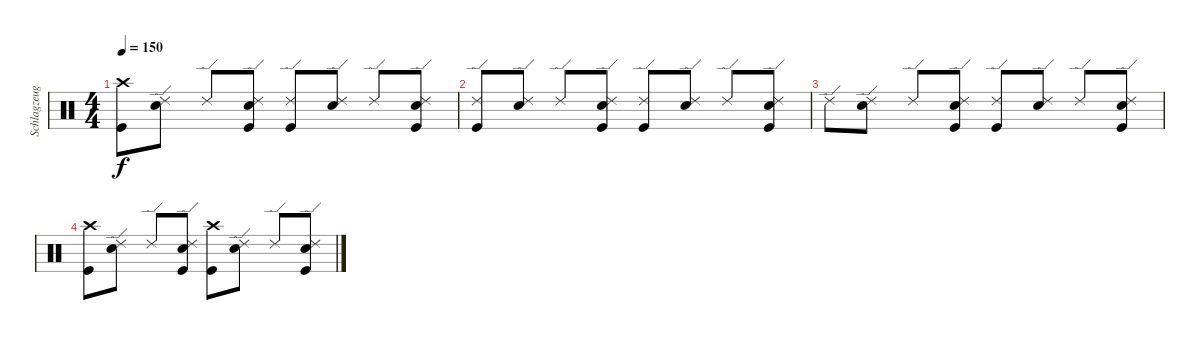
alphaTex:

\track ("Schlagzeug" "Schlagzeug") {instrument percussion}
\staff {score}
\articulation defaults
\ts (4 4)
\tempo 150
\clef neutral
\ks c
("Crash high (hit)" "Kick (hit)").8{dy f} ("Ride (edge) 2" "Snare (hit) 2").8 "Ride (edge) 2".8 ("Ride (edge) 2" "Snare (hit) 2" "Kick (hit)").8 ("Ride (edge) 2" "Kick (hit)").8 ("Ride (edge) 2" "Snare (hit) 2").8 "Ride (edge) 2".8 ("Ride (edge) 2" "Snare (hit) 2" "Kick (hit)").8 |
("Ride (edge) 2" "Kick (hit)").8 ("Ride (edge) 2" "Snare (hit) 2").8 "Ride (edge) 2".8 ("Ride (edge) 2" "Snare (hit) 2" "Kick (hit)").8 ("Ride (edge) 2" "Kick (hit)").8 ("Ride (edge) 2" "Snare (hit) 2").8 "Ride (edge) 2".8 ("Ride (edge) 2" "Snare (hit) 2" "Kick (hit)").8 |
"Ride (edge) 2".8 ("Ride (edge) 2" "Snare (hit) 2").8 "Ride (edge) 2".8 ("Ride (edge) 2" "Snare (hit) 2" "Kick (hit)").8 ("Ride (edge) 2" "Kick (hit)").8 ("Ride (edge) 2" "Snare (hit) 2").8 "Ride (edge) 2".8 ("Ride (edge) 2" "Snare (hit) 2" "Kick (hit)").8 |
("Crash high (hit)" "Kick (hit)").8 ("Ride (edge) 2" "Snare (hit) 2").8 "Ride (edge) 2".8 ("Ride (edge) 2" "Snare (hit) 2" "Kick (hit)").8 ("Crash high (hit)" "Kick (hit)").8 ("Ride (edge) 2" "Snare (hit) 2").8 "Ride (edge) 2".8 ("Ride (edge) 2" "Snare (hit) 2" "Kick (hit)").8
